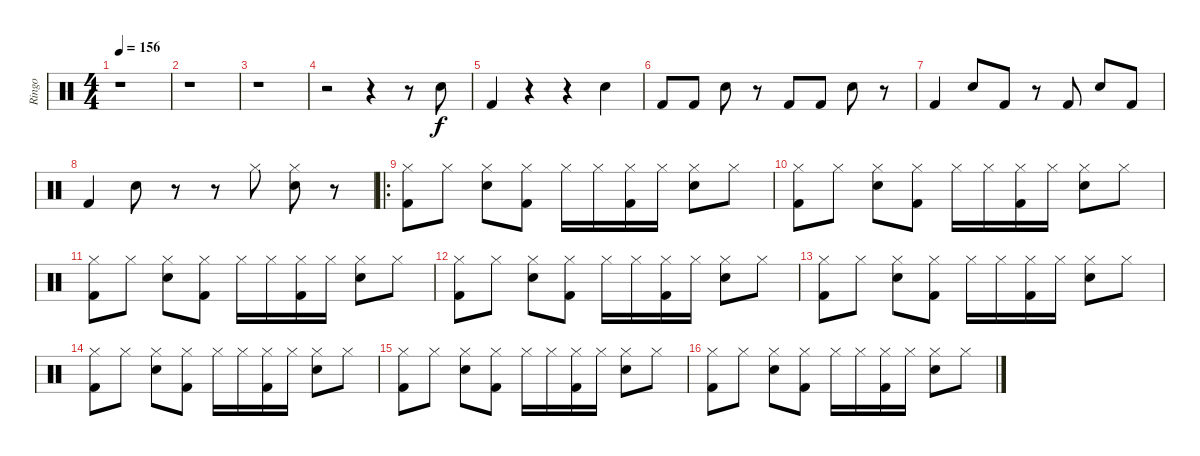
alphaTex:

\track ("Ringo" "Ringo") {instrument percussion}
\staff {score}
\articulation defaults
\ts (4 4)
\tempo 156
\clef neutral
\ks c
r.1{dy f} |
r.1 |
r.1 |
r.2 r.4 r.8 "Snare (hit) 2".8 |
"Kick (hit) 2".4 r.4 r.4 "Snare (hit) 2".4 |
"Kick (hit) 2".8 "Kick (hit) 2".8 "Snare (hit) 2".8 r.8 "Kick (hit) 2".8 "Kick (hit) 2".8 "Snare (hit) 2".8 r.8 |
"Kick (hit) 2".4 "Snare (hit) 2".8 "Kick (hit) 2".8 r.8 "Kick (hit) 2".8 "Snare (hit) 2".8 "Kick (hit) 2".8 |
"Kick (hit) 2".4 "Snare (hit) 2".8 r.8 r.8 "Hi-Hat (closed)".8 ("Hi-Hat (closed)" "Snare (hit) 2").8 r.8 |
\ro
("Hi-Hat (closed)" "Kick (hit) 2").8 "Hi-Hat (closed)".8 ("Hi-Hat (closed)" "Snare (hit) 2").8 ("Hi-Hat (closed)" "Kick (hit) 2").8 "Hi-Hat (closed)".16 "Hi-Hat (closed)".16 ("Hi-Hat (closed)" "Kick (hit) 2").16 "Hi-Hat (closed)".16 ("Hi-Hat (closed)" "Snare (hit) 2").8 "Hi-Hat (closed)".8 |
("Hi-Hat (closed)" "Kick (hit) 2").8 "Hi-Hat (closed)".8 ("Hi-Hat (closed)" "Snare (hit) 2").8 ("Hi-Hat (closed)" "Kick (hit) 2").8 "Hi-Hat (closed)".16 "Hi-Hat (closed)".16 ("Hi-Hat (closed)" "Kick (hit) 2").16 "Hi-Hat (closed)".16 ("Hi-Hat (closed)" "Snare (hit) 2").8 "Hi-Hat (closed)".8 |
("Hi-Hat (closed)" "Kick (hit) 2").8 "Hi-Hat (closed)".8 ("Hi-Hat (closed)" "Snare (hit) 2").8 ("Hi-Hat (closed)" "Kick (hit) 2").8 "Hi-Hat (closed)".16 "Hi-Hat (closed)".16 ("Hi-Hat (closed)" "Kick (hit) 2").16 "Hi-Hat (closed)".16 ("Hi-Hat (closed)" "Snare (hit) 2").8 "Hi-Hat (closed)".8 |
("Hi-Hat (closed)" "Kick (hit) 2").8 "Hi-Hat (closed)".8 ("Hi-Hat (closed)" "Snare (hit) 2").8 ("Hi-Hat (closed)" "Kick (hit) 2").8 "Hi-Hat (closed)".16 "Hi-Hat (closed)".16 ("Hi-Hat (closed)" "Kick (hit) 2").16 "Hi-Hat (closed)".16 ("Hi-Hat (closed)" "Snare (hit) 2").8 "Hi-Hat (closed)".8 |
("Hi-Hat (closed)" "Kick (hit) 2").8 "Hi-Hat (closed)".8 ("Hi-Hat (closed)" "Snare (hit) 2").8 ("Hi-Hat (closed)" "Kick (hit) 2").8 "Hi-Hat (closed)".16 "Hi-Hat (closed)".16 ("Hi-Hat (closed)" "Kick (hit) 2").16 "Hi-Hat (closed)".16 ("Hi-Hat (closed)" "Snare (hit) 2").8 "Hi-Hat (closed)".8 |
("Hi-Hat (closed)" "Kick (hit) 2").8 "Hi-Hat (closed)".8 ("Hi-Hat (closed)" "Snare (hit) 2").8 ("Hi-Hat (closed)" "Kick (hit) 2").8 "Hi-Hat (closed)".16 "Hi-Hat (closed)".16 ("Hi-Hat (closed)" "Kick (hit) 2").16 "Hi-Hat (closed)".16 ("Hi-Hat (closed)" "Snare (hit) 2").8 "Hi-Hat (closed)".8 |
("Hi-Hat (closed)" "Kick (hit) 2").8 "Hi-Hat (closed)".8 ("Hi-Hat (closed)" "Snare (hit) 2").8 ("Hi-Hat (closed)" "Kick (hit) 2").8 "Hi-Hat (closed)".16 "Hi-Hat (closed)".16 ("Hi-Hat (closed)" "Kick (hit) 2").16 "Hi-Hat (closed)".16 ("Hi-Hat (closed)" "Snare (hit) 2").8 "Hi-Hat (closed)".8 |
("Hi-Hat (closed)" "Kick (hit) 2").8 "Hi-Hat (closed)".8 ("Hi-Hat (closed)" "Snare (hit) 2").8 ("Hi-Hat (closed)" "Kick (hit) 2").8 "Hi-Hat (closed)".16 "Hi-Hat (closed)".16 ("Hi-Hat (closed)" "Kick (hit) 2").16 "Hi-Hat (closed)".16 ("Hi-Hat (closed)" "Snare (hit) 2").8 "Hi-Hat (closed)".8
